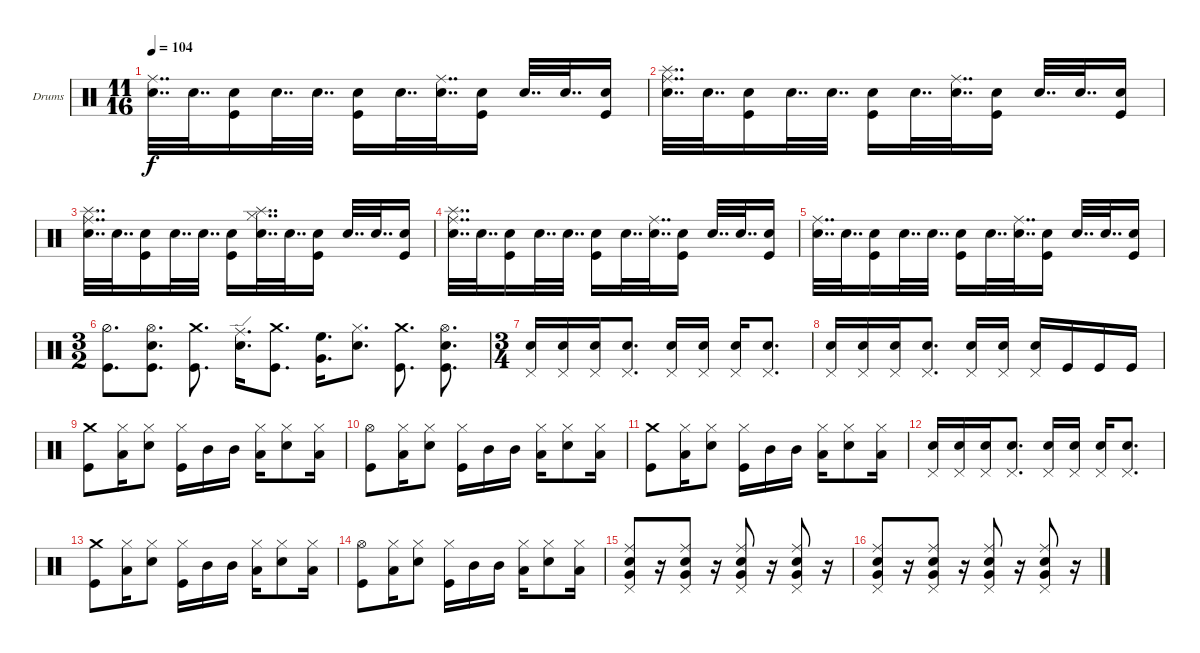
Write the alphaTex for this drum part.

\bracketExtendMode groupsimilarinstruments
\firstSystemTrackNameOrientation horizontal
\otherSystemsTrackNameOrientation horizontal
\track ("Drumkit" "Drums") {instrument percussion}
\staff {score}
\articulation defaults
\ts (11 16)
\tempo 104
\clef neutral
\ks c
("Snare (hit) 2" "Ride (middle)").32{dd dy f} "Snare (hit) 2".32{dd} ("Snare (hit) 2" "Kick (hit)").16 "Snare (hit) 2".32{dd} "Snare (hit) 2".32{dd} ("Snare (hit) 2" "Kick (hit)").16 "Snare (hit) 2".32{dd} ("Snare (hit) 2" "Ride (middle)").32{dd} ("Snare (hit) 2" "Kick (hit)").16 "Snare (hit) 2".32{dd} "Snare (hit) 2".32{dd} ("Snare (hit) 2" "Kick (hit)").16 |
("Snare (hit) 2" "Ride (middle)" "Splash (hit)").32{dd} "Snare (hit) 2".32{dd} ("Snare (hit) 2" "Kick (hit)").16 "Snare (hit) 2".32{dd} "Snare (hit) 2".32{dd} ("Snare (hit) 2" "Kick (hit)").16 "Snare (hit) 2".32{dd} ("Snare (hit) 2" "Ride (middle)").32{dd} ("Snare (hit) 2" "Kick (hit)").16 "Snare (hit) 2".32{dd} "Snare (hit) 2".32{dd} ("Snare (hit) 2" "Kick (hit)").16 |
("Snare (hit) 2" "Ride (middle)" "Splash (hit)").32{dd} "Snare (hit) 2".32{dd} ("Snare (hit) 2" "Kick (hit)").16 "Snare (hit) 2".32{dd} "Snare (hit) 2".32{dd} ("Snare (hit) 2" "Kick (hit)").16 ("Snare (hit) 2" "Splash (hit)" "Hi-Hat (closed)").32{dd} "Snare (hit) 2".32{dd} ("Snare (hit) 2" "Kick (hit)").16 "Snare (hit) 2".32{dd} "Snare (hit) 2".32{dd} ("Snare (hit) 2" "Kick (hit)").16 |
("Snare (hit) 2" "Ride (middle)" "Splash (hit)").32{dd} "Snare (hit) 2".32{dd} ("Snare (hit) 2" "Kick (hit)").16 "Snare (hit) 2".32{dd} "Snare (hit) 2".32{dd} ("Snare (hit) 2" "Kick (hit)").16 "Snare (hit) 2".32{dd} ("Snare (hit) 2" "Ride (middle)").32{dd} ("Snare (hit) 2" "Kick (hit)").16 "Snare (hit) 2".32{dd} "Snare (hit) 2".32{dd} ("Snare (hit) 2" "Kick (hit)").16 |
("Snare (hit) 2" "Ride (middle)").32{dd} "Snare (hit) 2".32{dd} ("Snare (hit) 2" "Kick (hit)").16 "Snare (hit) 2".32{dd} "Snare (hit) 2".32{dd} ("Snare (hit) 2" "Kick (hit)").16 "Snare (hit) 2".32{dd} ("Snare (hit) 2" "Ride (middle)").32{dd} ("Snare (hit) 2" "Kick (hit)").16 "Snare (hit) 2".32{dd} "Snare (hit) 2".32{dd} ("Snare (hit) 2" "Kick (hit)").16 |
\ts (3 2)
("Kick (hit)" "Hi-Hat (half)").8{d} ("Kick (hit)" "Snare (hit) 2" "Hi-Hat (open)").8{d} ("Kick (hit)" "Crash medium (hit)").8{d} ("Snare (hit) 2" "Ride (edge)").16{d} ("Kick (hit)" "Crash medium (hit)").8{d} ("Very Low Tom (hit)" "High Floor Tom (hit)").16{d} ("Snare (hit) 2" "Hi-Hat (closed)").8{d} ("Kick (hit)" "Crash medium (hit)").8{d} ("Kick (hit)" "Snare (hit) 2" "Hi-Hat (open)").8{d} |
\ts (3 4)
("Pedal Hi-Hat (hit)" "Snare (hit) 2").16 ("Pedal Hi-Hat (hit)" "Snare (hit) 2").16 ("Pedal Hi-Hat (hit)" "Snare (hit) 2").16 ("Pedal Hi-Hat (hit)" "Snare (hit) 2").8{d} ("Pedal Hi-Hat (hit)" "Snare (hit) 2").16 ("Pedal Hi-Hat (hit)" "Snare (hit) 2").16 ("Pedal Hi-Hat (hit)" "Snare (hit) 2").16 ("Pedal Hi-Hat (hit)" "Snare (hit) 2").8{d} |
("Pedal Hi-Hat (hit)" "Snare (hit) 2").16 ("Pedal Hi-Hat (hit)" "Snare (hit) 2").16 ("Pedal Hi-Hat (hit)" "Snare (hit) 2").16 ("Pedal Hi-Hat (hit)" "Snare (hit) 2").8{d} ("Pedal Hi-Hat (hit)" "Snare (hit) 2").16 ("Pedal Hi-Hat (hit)" "Snare (hit) 2").16 ("Pedal Hi-Hat (hit)" "Snare (hit) 2").16 "Kick (hit)".16 "Kick (hit)".16 "Kick (hit)".16 |
("Kick (hit)" "Crash medium (hit)").8 ("Hi-Hat (closed)" "Low Tom (hit)").16 ("Snare (hit) 2" "Hi-Hat (closed)").8 ("Hi-Hat (closed)" "Kick (hit)").16 "Mid Tom (hit)".16 "Mid Tom (hit)".16 ("Hi-Hat (closed)" "Low Tom (hit)").16 ("Snare (hit) 2" "Hi-Hat (closed)").8 ("Hi-Hat (closed)" "Low Tom (hit)").16 |
("Kick (hit)" "Hi-Hat (open)").8 ("Hi-Hat (closed)" "Low Tom (hit)").16 ("Snare (hit) 2" "Hi-Hat (closed)").8 ("Hi-Hat (closed)" "Kick (hit)").16 "Mid Tom (hit)".16 "Mid Tom (hit)".16 ("Hi-Hat (closed)" "Low Tom (hit)").16 ("Snare (hit) 2" "Hi-Hat (closed)").8 ("Hi-Hat (closed)" "Low Tom (hit)").16 |
("Kick (hit)" "Crash medium (hit)").8 ("Hi-Hat (closed)" "Low Tom (hit)").16 ("Snare (hit) 2" "Hi-Hat (closed)").8 ("Hi-Hat (closed)" "Kick (hit)").16 "Mid Tom (hit)".16 "Mid Tom (hit)".16 ("Hi-Hat (closed)" "Low Tom (hit)").16 ("Snare (hit) 2" "Hi-Hat (closed)").8 ("Hi-Hat (closed)" "Low Tom (hit)").16 |
("Pedal Hi-Hat (hit)" "Snare (hit) 2").16 ("Pedal Hi-Hat (hit)" "Snare (hit) 2").16 ("Pedal Hi-Hat (hit)" "Snare (hit) 2").16 ("Pedal Hi-Hat (hit)" "Snare (hit) 2").8{d} ("Pedal Hi-Hat (hit)" "Snare (hit) 2").16 ("Pedal Hi-Hat (hit)" "Snare (hit) 2").16 ("Pedal Hi-Hat (hit)" "Snare (hit) 2").16 ("Pedal Hi-Hat (hit)" "Snare (hit) 2").8{d} |
("Kick (hit)" "Crash medium (hit)").8 ("Hi-Hat (closed)" "Low Tom (hit)").16 ("Snare (hit) 2" "Hi-Hat (closed)").8 ("Hi-Hat (closed)" "Kick (hit)").16 "Mid Tom (hit)".16 "Mid Tom (hit)".16 ("Hi-Hat (closed)" "Low Tom (hit)").16 ("Snare (hit) 2" "Hi-Hat (closed)").8 ("Hi-Hat (closed)" "Low Tom (hit)").16 |
("Kick (hit)" "Hi-Hat (open)").8 ("Hi-Hat (closed)" "Low Tom (hit)").16 ("Snare (hit) 2" "Hi-Hat (closed)").8 ("Hi-Hat (closed)" "Kick (hit)").16 "Mid Tom (hit)".16 "Mid Tom (hit)".16 ("Hi-Hat (closed)" "Low Tom (hit)").16 ("Snare (hit) 2" "Hi-Hat (closed)").8 ("Hi-Hat (closed)" "Low Tom (hit)").16 |
("Pedal Hi-Hat (hit)" "Snare (hit) 2" "Ride (middle)" "Very Low Tom (hit)").8 r.16 ("Pedal Hi-Hat (hit)" "Snare (hit) 2" "Ride (middle)" "Very Low Tom (hit)").8 r.16 ("Pedal Hi-Hat (hit)" "Snare (hit) 2" "Ride (middle)" "Very Low Tom (hit)").8 r.16 ("Pedal Hi-Hat (hit)" "Snare (hit) 2" "Ride (middle)" "Very Low Tom (hit)").8 r.16 |
("Pedal Hi-Hat (hit)" "Snare (hit) 2" "Ride (middle)" "Very Low Tom (hit)").8 r.16 ("Pedal Hi-Hat (hit)" "Snare (hit) 2" "Ride (middle)" "Very Low Tom (hit)").8 r.16 ("Pedal Hi-Hat (hit)" "Snare (hit) 2" "Ride (middle)" "Very Low Tom (hit)").8 r.16 ("Pedal Hi-Hat (hit)" "Snare (hit) 2" "Ride (middle)" "Very Low Tom (hit)").8 r.16
